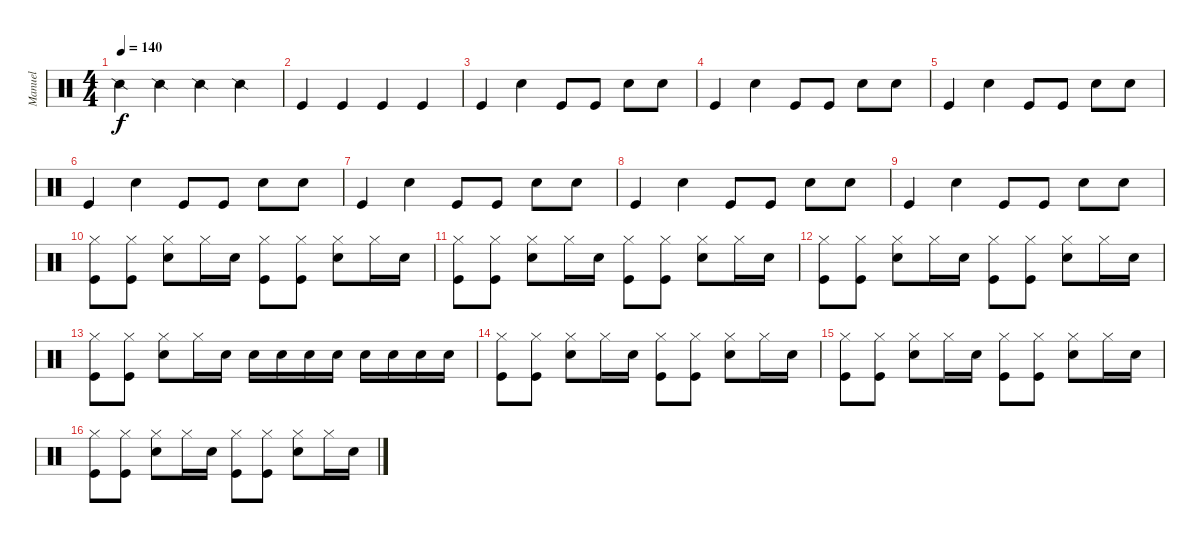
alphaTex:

\track ("Manuel" "Manuel") {instrument percussion}
\staff {score}
\articulation defaults
\ts (4 4)
\tempo 140
\clef neutral
\ks c "Snare (side stick) 2".4{dy f} "Snare (side stick) 2".4 "Snare (side stick) 2".4 "Snare (side stick) 2".4
|
"Kick (hit)".4 "Kick (hit)".4 "Kick (hit)".4 "Kick (hit)".4 |
"Kick (hit)".4 "Electric Snare (hit)".4 "Kick (hit)".8 "Kick (hit)".8 "Electric Snare (hit)".8 "Electric Snare (hit)".8 |
"Kick (hit)".4 "Electric Snare (hit)".4 "Kick (hit)".8 "Kick (hit)".8 "Electric Snare (hit)".8 "Electric Snare (hit)".8 |
"Kick (hit)".4 "Electric Snare (hit)".4 "Kick (hit)".8 "Kick (hit)".8 "Electric Snare (hit)".8 "Electric Snare (hit)".8 |
"Kick (hit)".4 "Electric Snare (hit)".4 "Kick (hit)".8 "Kick (hit)".8 "Electric Snare (hit)".8 "Electric Snare (hit)".8 |
"Kick (hit)".4 "Electric Snare (hit)".4 "Kick (hit)".8 "Kick (hit)".8 "Electric Snare (hit)".8 "Electric Snare (hit)".8 |
"Kick (hit)".4 "Electric Snare (hit)".4 "Kick (hit)".8 "Kick (hit)".8 "Electric Snare (hit)".8 "Electric Snare (hit)".8 |
"Kick (hit)".4 "Electric Snare (hit)".4 "Kick (hit)".8 "Kick (hit)".8 "Electric Snare (hit)".8 "Electric Snare (hit)".8 |
("Hi-Hat (closed)" "Kick (hit)").8 ("Hi-Hat (closed)" "Kick (hit)").8 ("Hi-Hat (closed)" "Snare (hit) 2").8 "Hi-Hat (closed)".16 "Snare (hit) 2".16 ("Hi-Hat (closed)" "Kick (hit)").8 ("Hi-Hat (closed)" "Kick (hit)").8 ("Hi-Hat (closed)" "Snare (hit) 2").8 "Hi-Hat (closed)".16 "Snare (hit) 2".16 |
("Hi-Hat (closed)" "Kick (hit)").8 ("Hi-Hat (closed)" "Kick (hit)").8 ("Hi-Hat (closed)" "Snare (hit) 2").8 "Hi-Hat (closed)".16 "Snare (hit) 2".16 ("Hi-Hat (closed)" "Kick (hit)").8 ("Hi-Hat (closed)" "Kick (hit)").8 ("Hi-Hat (closed)" "Snare (hit) 2").8 "Hi-Hat (closed)".16 "Snare (hit) 2".16 |
("Hi-Hat (closed)" "Kick (hit)").8 ("Hi-Hat (closed)" "Kick (hit)").8 ("Hi-Hat (closed)" "Snare (hit) 2").8 "Hi-Hat (closed)".16 "Snare (hit) 2".16 ("Hi-Hat (closed)" "Kick (hit)").8 ("Hi-Hat (closed)" "Kick (hit)").8 ("Hi-Hat (closed)" "Snare (hit) 2").8 "Hi-Hat (closed)".16 "Snare (hit) 2".16 |
("Hi-Hat (closed)" "Kick (hit)").8 ("Hi-Hat (closed)" "Kick (hit)").8 ("Hi-Hat (closed)" "Snare (hit) 2").8 "Hi-Hat (closed)".16 "Snare (hit) 2".16 "Snare (hit) 2".16 "Snare (hit) 2".16 "Snare (hit) 2".16 "Snare (hit) 2".16 "Snare (hit) 2".16 "Snare (hit) 2".16 "Snare (hit) 2".16 "Snare (hit) 2".16 |
("Hi-Hat (closed)" "Kick (hit)").8 ("Hi-Hat (closed)" "Kick (hit)").8 ("Hi-Hat (closed)" "Snare (hit) 2").8 "Hi-Hat (closed)".16 "Snare (hit) 2".16 ("Hi-Hat (closed)" "Kick (hit)").8 ("Hi-Hat (closed)" "Kick (hit)").8 ("Hi-Hat (closed)" "Snare (hit) 2").8 "Hi-Hat (closed)".16 "Snare (hit) 2".16 |
("Hi-Hat (closed)" "Kick (hit)").8 ("Hi-Hat (closed)" "Kick (hit)").8 ("Hi-Hat (closed)" "Snare (hit) 2").8 "Hi-Hat (closed)".16 "Snare (hit) 2".16 ("Hi-Hat (closed)" "Kick (hit)").8 ("Hi-Hat (closed)" "Kick (hit)").8 ("Hi-Hat (closed)" "Snare (hit) 2").8 "Hi-Hat (closed)".16 "Snare (hit) 2".16 |
("Hi-Hat (closed)" "Kick (hit)").8 ("Hi-Hat (closed)" "Kick (hit)").8 ("Hi-Hat (closed)" "Snare (hit) 2").8 "Hi-Hat (closed)".16 "Snare (hit) 2".16 ("Hi-Hat (closed)" "Kick (hit)").8 ("Hi-Hat (closed)" "Kick (hit)").8 ("Hi-Hat (closed)" "Snare (hit) 2").8 "Hi-Hat (closed)".16 "Snare (hit) 2".16
